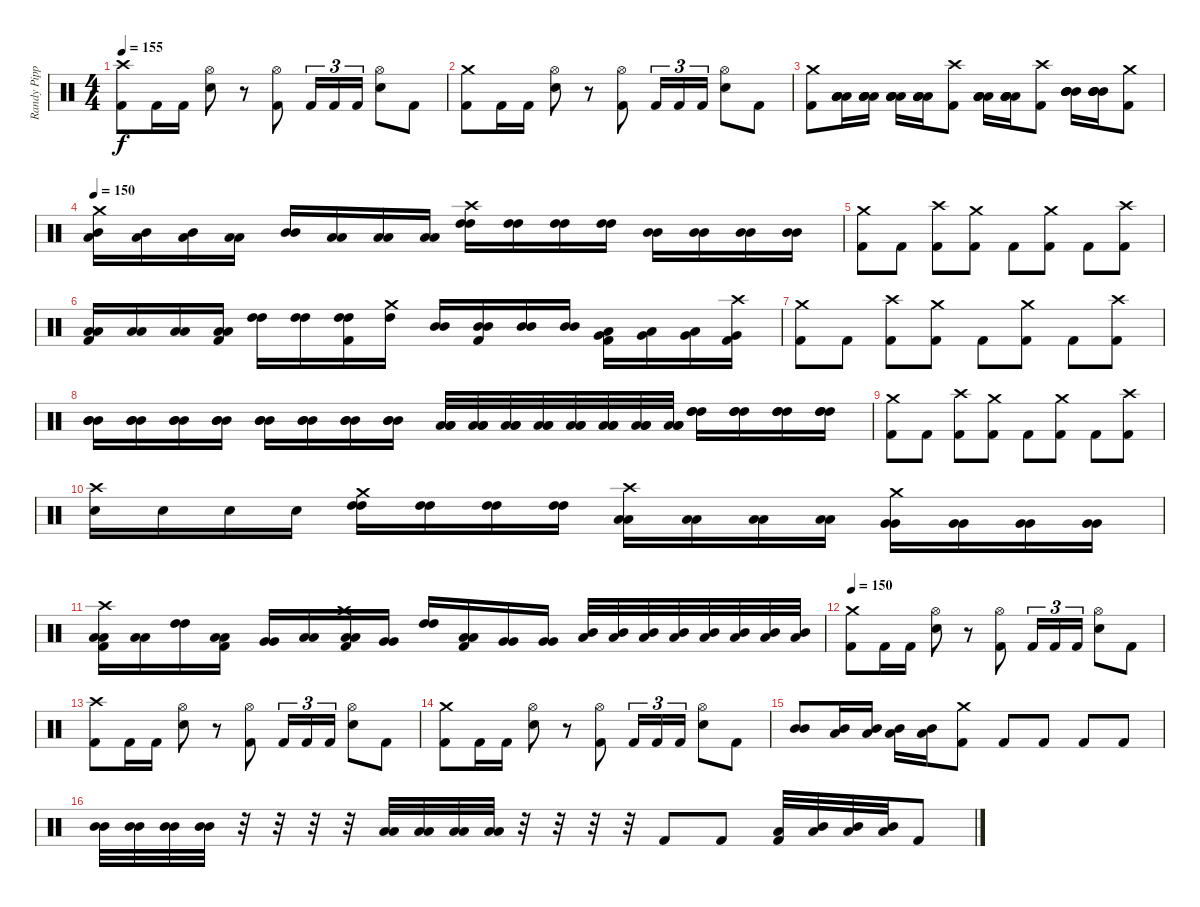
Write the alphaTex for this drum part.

\track ("Randy Pipper" "Randy Pipp") {instrument percussion}
\staff {score}
\articulation defaults
\ts (4 4)
\tempo 155
\clef neutral
\ks c
("Crash high (hit)" "Kick (hit) 2").8{dy f} "Kick (hit) 2".16 "Kick (hit) 2".16 ("Hi-Hat (open)" "Snare (hit) 2").8 r.8 ("Hi-Hat (open)" "Kick (hit) 2").8 "Kick (hit) 2".16{tu (3 2)} "Kick (hit) 2".16{tu (3 2)} "Kick (hit) 2".16{tu (3 2)} ("Hi-Hat (open)" "Snare (hit) 2").8 "Kick (hit) 2".8 |
("Crash medium (hit)" "Kick (hit) 2").8 "Kick (hit) 2".16 "Kick (hit) 2".16 ("Hi-Hat (open)" "Snare (hit) 2").8 r.8 ("Hi-Hat (open)" "Kick (hit) 2").8 "Kick (hit) 2".16{tu (3 2)} "Kick (hit) 2".16{tu (3 2)} "Kick (hit) 2".16{tu (3 2)} ("Hi-Hat (open)" "Snare (hit) 2").8 "Kick (hit) 2".8 |
("Kick (hit) 2" "Crash medium (hit)").8 ("Low Tom (hit)" "Low Tom (hit)" "Low Tom (hit)" "Low Tom (hit)").16 ("Low Tom (hit)" "Low Tom (hit)" "Low Tom (hit)" "Low Tom (hit)").16 ("Low Tom (hit)" "Low Tom (hit)" "Low Tom (hit)" "Low Tom (hit)").16 ("Low Tom (hit)" "Low Tom (hit)" "Low Tom (hit)" "Low Tom (hit)").16 ("Kick (hit) 2" "Crash high (hit)").8 ("Low Tom (hit)" "Low Tom (hit)" "Low Tom (hit)" "Low Tom (hit)").16 ("Low Tom (hit)" "Low Tom (hit)" "Low Tom (hit)" "Low Tom (hit)").16 ("Kick (hit) 2" "Crash high (hit)").8 ("Mid Tom (hit)" "Mid Tom (hit)" "Mid Tom (hit)" "Mid Tom (hit)").16 ("Mid Tom (hit)" "Mid Tom (hit)" "Mid Tom (hit)" "Mid Tom (hit)").16 ("Kick (hit) 2" "Crash medium (hit)").8 |
\tempo 150
("Mid Tom (hit)" "Low Tom (hit)" "Crash medium (hit)").16 ("Mid Tom (hit)" "Low Tom (hit)").16 ("Mid Tom (hit)" "Low Tom (hit)").16 ("Low Tom (hit)" "Low Tom (hit)").16 ("Mid Tom (hit)" "Mid Tom (hit)").16 ("Low Tom (hit)" "Low Tom (hit)").16 ("Low Tom (hit)" "Low Tom (hit)").16 ("Low Tom (hit)" "Low Tom (hit)").16 ("High Tom (hit)" "High Tom (hit)" "Crash high (hit)").16 ("High Tom (hit)" "High Tom (hit)").16 ("High Tom (hit)" "High Tom (hit)").16 ("High Tom (hit)" "High Tom (hit)").16 ("Mid Tom (hit)" "Mid Tom (hit)").16 ("Mid Tom (hit)" "Mid Tom (hit)").16 ("Mid Tom (hit)" "Mid Tom (hit)").16 ("Mid Tom (hit)" "Mid Tom (hit)").16 |
("Kick (hit) 2" "Crash medium (hit)").8 "Kick (hit) 2".8 ("Kick (hit) 2" "Crash high (hit)").8 ("Kick (hit) 2" "Crash medium (hit)").8 "Kick (hit) 2".8 ("Kick (hit) 2" "Crash medium (hit)").8 "Kick (hit) 2".8 ("Kick (hit) 2" "Crash high (hit)").8 |
("Low Tom (hit)" "Low Tom (hit)" "Kick (hit) 2").16 ("Low Tom (hit)" "Low Tom (hit)").16 ("Low Tom (hit)" "Low Tom (hit)").16 ("Low Tom (hit)" "Low Tom (hit)" "Kick (hit) 2").16 ("High Tom (hit)" "High Tom (hit)").16 ("High Tom (hit)" "High Tom (hit)").16 ("High Tom (hit)" "High Tom (hit)" "Kick (hit) 2").16 ("High Tom (hit)" "Crash medium (hit)").16 ("Mid Tom (hit)" "Mid Tom (hit)").16 ("Mid Tom (hit)" "Mid Tom (hit)" "Kick (hit) 2").16 ("Mid Tom (hit)" "Mid Tom (hit)").16 ("Mid Tom (hit)" "Mid Tom (hit)").16 ("Very Low Tom (hit)" "Low Tom (hit)" "Kick (hit) 2").16 ("Very Low Tom (hit)" "Low Tom (hit)").16 ("Very Low Tom (hit)" "Low Tom (hit)").16 ("Very Low Tom (hit)" "Crash high (hit)" "Kick (hit) 2").16 |
("Kick (hit) 2" "Crash medium (hit)").8 "Kick (hit) 2".8 ("Kick (hit) 2" "Crash high (hit)").8 ("Kick (hit) 2" "Crash medium (hit)").8 "Kick (hit) 2".8 ("Kick (hit) 2" "Crash medium (hit)").8 "Kick (hit) 2".8 ("Kick (hit) 2" "Crash high (hit)").8 |
("Mid Tom (hit)" "Mid Tom (hit)" "Mid Tom (hit)").16 ("Mid Tom (hit)" "Mid Tom (hit)" "Mid Tom (hit)").16 ("Mid Tom (hit)" "Mid Tom (hit)" "Mid Tom (hit)").16 ("Mid Tom (hit)" "Mid Tom (hit)" "Mid Tom (hit)").16 ("Mid Tom (hit)" "Mid Tom (hit)" "Mid Tom (hit)").16 ("Mid Tom (hit)" "Mid Tom (hit)" "Mid Tom (hit)").16 ("Mid Tom (hit)" "Mid Tom (hit)" "Mid Tom (hit)").16 ("Mid Tom (hit)" "Mid Tom (hit)" "Mid Tom (hit)").16 ("Low Tom (hit)" "Low Tom (hit)" "Low Tom (hit)").32 ("Low Tom (hit)" "Low Tom (hit)" "Low Tom (hit)").32 ("Low Tom (hit)" "Low Tom (hit)" "Low Tom (hit)").32 ("Low Tom (hit)" "Low Tom (hit)" "Low Tom (hit)").32 ("Low Tom (hit)" "Low Tom (hit)" "Low Tom (hit)").32 ("Low Tom (hit)" "Low Tom (hit)" "Low Tom (hit)").32 ("Low Tom (hit)" "Low Tom (hit)" "Low Tom (hit)").32 ("Low Tom (hit)" "Low Tom (hit)" "Low Tom (hit)").32 ("High Tom (hit)" "High Tom (hit)" "High Tom (hit)").16 ("High Tom (hit)" "High Tom (hit)" "High Tom (hit)").16 ("High Tom (hit)" "High Tom (hit)" "High Tom (hit)").16 ("High Tom (hit)" "High Tom (hit)" "High Tom (hit)").16 |
("Kick (hit) 2" "Crash medium (hit)").8 "Kick (hit) 2".8 ("Kick (hit) 2" "Crash high (hit)").8 ("Kick (hit) 2" "Crash medium (hit)").8 "Kick (hit) 2".8 ("Kick (hit) 2" "Crash medium (hit)").8 "Kick (hit) 2".8 ("Kick (hit) 2" "Crash high (hit)").8 |
("Snare (hit) 2" "Crash high (hit)").16 "Snare (hit) 2".16 "Snare (hit) 2".16 "Snare (hit) 2".16 ("High Tom (hit)" "High Tom (hit)" "Crash medium (hit)").16 ("High Tom (hit)" "High Tom (hit)").16 ("High Tom (hit)" "High Tom (hit)").16 ("High Tom (hit)" "High Tom (hit)").16 ("Low Tom (hit)" "Low Tom (hit)" "Crash high (hit)").16 ("Low Tom (hit)" "Low Tom (hit)").16 ("Low Tom (hit)" "Low Tom (hit)").16 ("Low Tom (hit)" "Low Tom (hit)").16 ("Very Low Tom (hit)" "Very Low Tom (hit)" "Crash medium (hit)").16 ("Very Low Tom (hit)" "Very Low Tom (hit)").16 ("Very Low Tom (hit)" "Very Low Tom (hit)").16 ("Very Low Tom (hit)" "Very Low Tom (hit)").16 |
("Low Tom (hit)" "Low Tom (hit)" "Kick (hit) 2" "Crash high (hit)").16 ("Low Tom (hit)" "Low Tom (hit)").16 ("High Tom (hit)" "High Tom (hit)").16 ("Low Tom (hit)" "Low Tom (hit)" "Kick (hit) 2").16 ("Very Low Tom (hit)" "Very Low Tom (hit)").16 ("Low Tom (hit)" "Low Tom (hit)").16 ("Low Tom (hit)" "Low Tom (hit)" "Kick (hit) 2" "Crash medium (hit)").16 ("Very Low Tom (hit)" "Very Low Tom (hit)").16 ("High Tom (hit)" "High Tom (hit)").16 ("Low Tom (hit)" "Low Tom (hit)" "Kick (hit) 2").16 ("Very Low Tom (hit)" "Very Low Tom (hit)").16 ("Very Low Tom (hit)" "Very Low Tom (hit)").16 ("Low Tom (hit)" "Mid Tom (hit)").32 ("Low Tom (hit)" "Mid Tom (hit)").32 ("Low Tom (hit)" "Mid Tom (hit)").32 ("Low Tom (hit)" "Mid Tom (hit)").32 ("Low Tom (hit)" "Mid Tom (hit)").32 ("Low Tom (hit)" "Mid Tom (hit)").32 ("Low Tom (hit)" "Mid Tom (hit)").32 ("Low Tom (hit)" "Mid Tom (hit)").32 |
\tempo 150
("Crash medium (hit)" "Kick (hit) 2").8 "Kick (hit) 2".16 "Kick (hit) 2".16 ("Hi-Hat (open)" "Snare (hit) 2").8 r.8 ("Hi-Hat (open)" "Kick (hit) 2").8 "Kick (hit) 2".16{tu (3 2)} "Kick (hit) 2".16{tu (3 2)} "Kick (hit) 2".16{tu (3 2)} ("Hi-Hat (open)" "Snare (hit) 2").8 "Kick (hit) 2".8 |
("Crash high (hit)" "Kick (hit) 2").8 "Kick (hit) 2".16 "Kick (hit) 2".16 ("Hi-Hat (open)" "Snare (hit) 2").8 r.8 ("Hi-Hat (open)" "Kick (hit) 2").8 "Kick (hit) 2".16{tu (3 2)} "Kick (hit) 2".16{tu (3 2)} "Kick (hit) 2".16{tu (3 2)} ("Hi-Hat (open)" "Snare (hit) 2").8 "Kick (hit) 2".8 |
("Crash medium (hit)" "Kick (hit) 2").8 "Kick (hit) 2".16 "Kick (hit) 2".16 ("Hi-Hat (open)" "Snare (hit) 2").8 r.8 ("Hi-Hat (open)" "Kick (hit) 2").8 "Kick (hit) 2".16{tu (3 2)} "Kick (hit) 2".16{tu (3 2)} "Kick (hit) 2".16{tu (3 2)} ("Hi-Hat (open)" "Snare (hit) 2").8 "Kick (hit) 2".8 |
("Mid Tom (hit)" "Mid Tom (hit)").8 ("Mid Tom (hit)" "Low Tom (hit)").16 ("Mid Tom (hit)" "Low Tom (hit)").16 ("Mid Tom (hit)" "Low Tom (hit)").16 ("Mid Tom (hit)" "Low Tom (hit)").16 ("Kick (hit) 2" "Crash medium (hit)").8 "Kick (hit) 2".8 "Kick (hit) 2".8 "Kick (hit) 2".8 "Kick (hit) 2".8 |
("Mid Tom (hit)" "Mid Tom (hit)").32 ("Mid Tom (hit)" "Mid Tom (hit)").32 ("Mid Tom (hit)" "Mid Tom (hit)").32 ("Mid Tom (hit)" "Mid Tom (hit)").32 r.32 r.32 r.32 r.32 ("Low Tom (hit)" "Low Tom (hit)").32 ("Low Tom (hit)" "Low Tom (hit)").32 ("Low Tom (hit)" "Low Tom (hit)").32 ("Low Tom (hit)" "Low Tom (hit)").32 r.32 r.32 r.32 r.32 "Kick (hit) 2".8 "Kick (hit) 2".8 ("Low Tom (hit)" "Kick (hit) 2").32 ("Low Tom (hit)" "Mid Tom (hit)").32 ("Low Tom (hit)" "Mid Tom (hit)").32 ("Low Tom (hit)" "Mid Tom (hit)").32 "Kick (hit) 2".8
